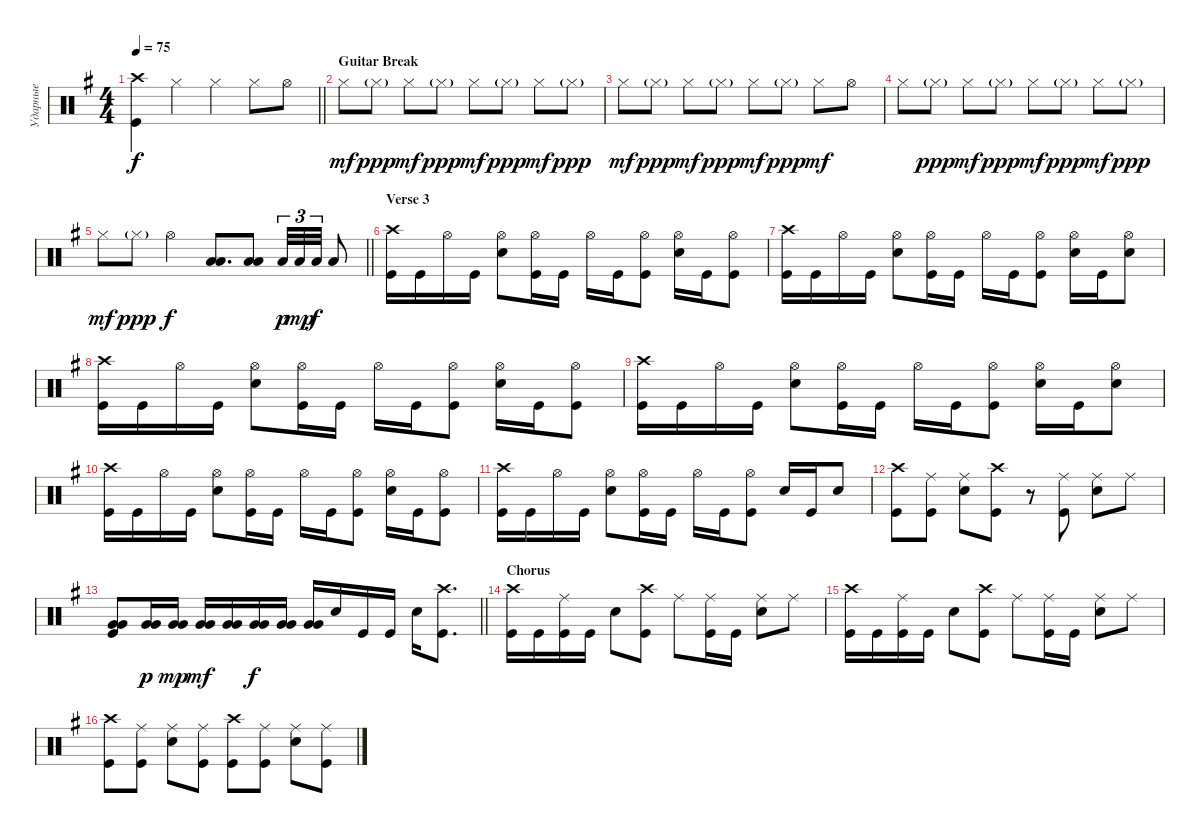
\track ("Ударные" "Ударные") {instrument percussion}
\staff {score}
\articulation defaults
\ts (4 4)
\tempo 75
\clef neutral
\barLineRight lightlight
\ks eminor
("Kick (hit)" "Crash high (hit)").4{dy f} "Hi-Hat (closed)".4 "Hi-Hat (closed)".4 "Hi-Hat (closed)".8 "Hi-Hat (open)".8 |
\section ("" "Guitar Break")
"Hi-Hat (closed)".8{dy mf} "Hi-Hat (closed)"{g}.8{dy ppp} "Hi-Hat (closed)".8{dy mf} "Hi-Hat (closed)"{g}.8{dy ppp} "Hi-Hat (closed)".8{dy mf} "Hi-Hat (closed)"{g}.8{dy ppp} "Hi-Hat (closed)".8{dy mf} "Hi-Hat (closed)"{g}.8{dy ppp} |
"Hi-Hat (closed)".8{dy mf} "Hi-Hat (closed)"{g}.8{dy ppp} "Hi-Hat (closed)".8{dy mf} "Hi-Hat (closed)"{g}.8{dy ppp} "Hi-Hat (closed)".8{dy mf} "Hi-Hat (closed)"{g}.8{dy ppp} "Hi-Hat (closed)".8{dy mf} "Hi-Hat (open)".8 |
"Hi-Hat (closed)".8 "Hi-Hat (closed)"{g}.8{dy ppp} "Hi-Hat (closed)".8{dy mf} "Hi-Hat (closed)"{g}.8{dy ppp} "Hi-Hat (closed)".8{dy mf} "Hi-Hat (closed)"{g}.8{dy ppp} "Hi-Hat (closed)".8{dy mf} "Hi-Hat (closed)"{g}.8{dy ppp} |
\barLineRight lightlight "Hi-Hat (closed)".8{dy mf} "Hi-Hat (closed)"{g}.8{dy ppp} "Hi-Hat (open)".4{dy f}
("Low Tom (hit)" "Low Tom (hit)").8{d bd 120} ("Low Tom (hit)" "Low Tom (hit)").8{bd 120} "Low Tom (hit)".32{tu (3 2) dy p} "Low Tom (hit)".32{tu (3 2) dy mp} "Low Tom (hit)".32{tu (3 2) dy f} "Low Tom (hit)".8 |
\section ("" "Verse 3")
("Kick (hit)" "Crash high (hit)").16 "Kick (hit)".16 "Hi-Hat (open)".16 "Kick (hit)".16 ("Snare (hit) 2" "Hi-Hat (open)").8 ("Kick (hit)" "Hi-Hat (open)").16 "Kick (hit)".16 "Hi-Hat (open)".16 "Kick (hit)".16 ("Kick (hit)" "Hi-Hat (open)").8 ("Snare (hit) 2" "Hi-Hat (open)").16 "Kick (hit)".16 ("Kick (hit)" "Hi-Hat (open)").8 |
("Kick (hit)" "Crash high (hit)").16 "Kick (hit)".16 "Hi-Hat (open)".16 "Kick (hit)".16 ("Snare (hit) 2" "Hi-Hat (open)").8 ("Kick (hit)" "Hi-Hat (open)").16 "Kick (hit)".16 "Hi-Hat (open)".16 "Kick (hit)".16 ("Kick (hit)" "Hi-Hat (open)").8 ("Snare (hit) 2" "Hi-Hat (open)").16 "Kick (hit)".16 ("Hi-Hat (open)" "Snare (hit) 2").8 |
("Kick (hit)" "Crash high (hit)").16 "Kick (hit)".16 "Hi-Hat (open)".16 "Kick (hit)".16 ("Snare (hit) 2" "Hi-Hat (open)").8 ("Kick (hit)" "Hi-Hat (open)").16 "Kick (hit)".16 "Hi-Hat (open)".16 "Kick (hit)".16 ("Kick (hit)" "Hi-Hat (open)").8 ("Snare (hit) 2" "Hi-Hat (open)").16 "Kick (hit)".16 ("Kick (hit)" "Hi-Hat (open)").8 |
("Kick (hit)" "Crash high (hit)").16 "Kick (hit)".16 "Hi-Hat (open)".16 "Kick (hit)".16 ("Snare (hit) 2" "Hi-Hat (open)").8 ("Kick (hit)" "Hi-Hat (open)").16 "Kick (hit)".16 "Hi-Hat (open)".16 "Kick (hit)".16 ("Kick (hit)" "Hi-Hat (open)").8 ("Snare (hit) 2" "Hi-Hat (open)").16 "Kick (hit)".16 ("Snare (hit) 2" "Hi-Hat (open)").8 |
("Kick (hit)" "Crash high (hit)").16 "Kick (hit)".16 "Hi-Hat (open)".16 "Kick (hit)".16 ("Snare (hit) 2" "Hi-Hat (open)").8 ("Kick (hit)" "Hi-Hat (open)").16 "Kick (hit)".16 "Hi-Hat (open)".16 "Kick (hit)".16 ("Kick (hit)" "Hi-Hat (open)").8 ("Snare (hit) 2" "Hi-Hat (open)").16 "Kick (hit)".16 ("Kick (hit)" "Hi-Hat (open)").8 |
("Kick (hit)" "Crash high (hit)").16 "Kick (hit)".16 "Hi-Hat (open)".16 "Kick (hit)".16 ("Snare (hit) 2" "Hi-Hat (open)").8 ("Kick (hit)" "Hi-Hat (open)").16 "Kick (hit)".16 "Hi-Hat (open)".16 "Kick (hit)".16 ("Kick (hit)" "Hi-Hat (open)").8 "Snare (hit) 2".16 "Kick (hit)".16 "Snare (hit) 2".8 |
("Kick (hit)" "Crash high (hit)").8 ("Kick (hit)" "Ride (middle)").8 ("Snare (hit) 2" "Ride (middle)").8 ("Kick (hit)" "Crash high (hit)").8 r.8 ("Kick (hit)" "Ride (middle)").8 ("Snare (hit) 2" "Ride (middle)").8 "Ride (middle)".8 |
\barLineRight lightlight
("Kick (hit)" "Very Low Tom (hit)" "Very Low Tom (hit)").8{bd 60} ("Very Low Tom (hit)" "Very Low Tom (hit)").16{bd 60 dy p} ("Very Low Tom (hit)" "Very Low Tom (hit)").16{bd 60 dy mp} ("Very Low Tom (hit)" "Very Low Tom (hit)").16{bd 60 dy mf} ("Very Low Tom (hit)" "Very Low Tom (hit)").16{bd 60} ("Very Low Tom (hit)" "Very Low Tom (hit)").16{bd 60 dy f} ("Very Low Tom (hit)" "Very Low Tom (hit)").16{bd 60} ("Very Low Tom (hit)" "Very Low Tom (hit)").16{bd 60} "Snare (hit) 2".16 "Kick (hit)".16 "Kick (hit)".16 "Snare (hit) 2".16 ("Kick (hit)" "Crash high (hit)").8{d} |
\section ("" "Chorus")
("Kick (hit)" "Crash high (hit)").16 "Kick (hit)".16 ("Kick (hit)" "Ride (middle)").16 "Kick (hit)".16 "Snare (hit) 2".8 ("Kick (hit)" "Crash high (hit)").8 "Ride (middle)".8 ("Kick (hit)" "Ride (middle)").16 "Kick (hit)".16 ("Snare (hit) 2" "Ride (middle)").8 "Ride (middle)".8 |
("Kick (hit)" "Crash high (hit)").16 "Kick (hit)".16 ("Kick (hit)" "Ride (middle)").16 "Kick (hit)".16 "Snare (hit) 2".8 ("Kick (hit)" "Crash high (hit)").8 "Ride (middle)".8 ("Kick (hit)" "Ride (middle)").16 "Kick (hit)".16 ("Snare (hit) 2" "Ride (middle)").8 "Ride (middle)".8 |
("Kick (hit)" "Crash high (hit)").8 ("Kick (hit)" "Ride (middle)").8 ("Snare (hit) 2" "Ride (middle)").8 ("Kick (hit)" "Ride (middle)").8 ("Kick (hit)" "Crash high (hit)").8 ("Kick (hit)" "Ride (middle)").8 ("Snare (hit) 2" "Ride (middle)").8 ("Kick (hit)" "Ride (middle)").8
